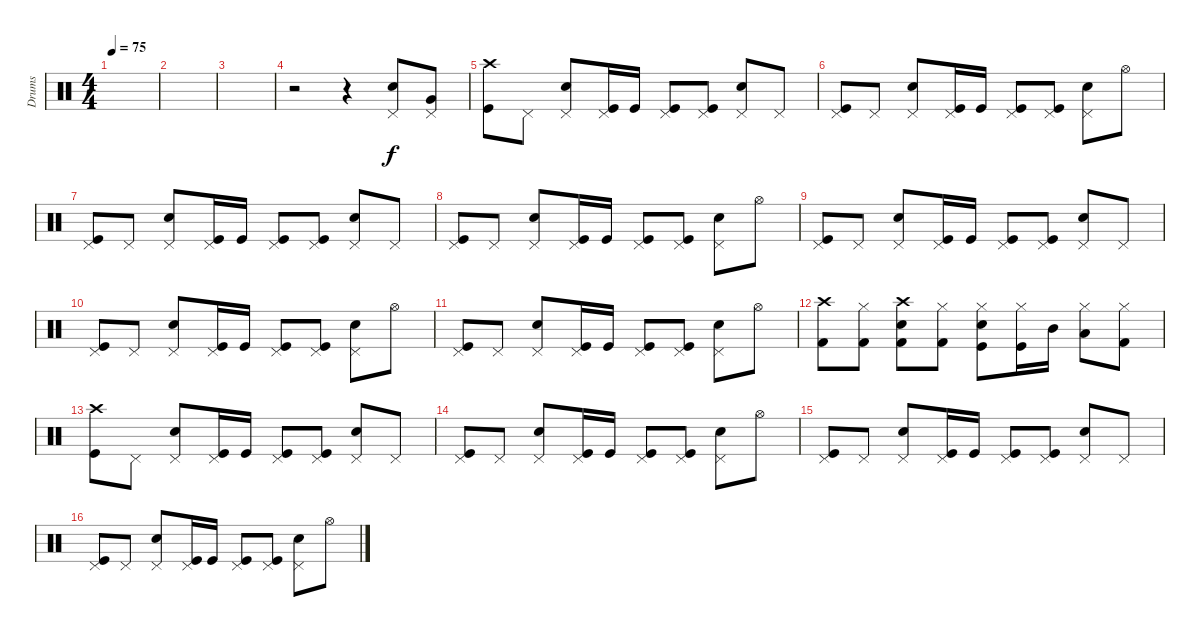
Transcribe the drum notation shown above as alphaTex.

\track ("Drums" "Drums") {instrument percussion}
\staff {score}
\articulation defaults
\ts (4 4)
\tempo 75
\clef neutral
\ks c
|
|
|
r.2 r.4 ("Pedal Hi-Hat (hit)" "Electric Snare (hit)").8 ("Pedal Hi-Hat (hit)" "Very Low Tom (hit)").8 |
("Crash high (hit)" "Kick (hit)").8 "Pedal Hi-Hat (hit)".8 ("Pedal Hi-Hat (hit)" "Electric Snare (hit)").8 ("Pedal Hi-Hat (hit)" "Kick (hit)").16 "Kick (hit)".16 ("Pedal Hi-Hat (hit)" "Kick (hit)").8 ("Pedal Hi-Hat (hit)" "Kick (hit)").8 ("Pedal Hi-Hat (hit)" "Electric Snare (hit)").8 "Pedal Hi-Hat (hit)".8 |
("Pedal Hi-Hat (hit)" "Kick (hit)").8 "Pedal Hi-Hat (hit)".8 ("Pedal Hi-Hat (hit)" "Electric Snare (hit)").8 ("Pedal Hi-Hat (hit)" "Kick (hit)").16 "Kick (hit)".16 ("Pedal Hi-Hat (hit)" "Kick (hit)").8 ("Pedal Hi-Hat (hit)" "Kick (hit)").8 ("Pedal Hi-Hat (hit)" "Electric Snare (hit)").8 "Hi-Hat (open)".8 |
("Pedal Hi-Hat (hit)" "Kick (hit)").8 "Pedal Hi-Hat (hit)".8 ("Pedal Hi-Hat (hit)" "Electric Snare (hit)").8 ("Pedal Hi-Hat (hit)" "Kick (hit)").16 "Kick (hit)".16 ("Pedal Hi-Hat (hit)" "Kick (hit)").8 ("Pedal Hi-Hat (hit)" "Kick (hit)").8 ("Pedal Hi-Hat (hit)" "Electric Snare (hit)").8 "Pedal Hi-Hat (hit)".8 |
("Pedal Hi-Hat (hit)" "Kick (hit)").8 "Pedal Hi-Hat (hit)".8 ("Pedal Hi-Hat (hit)" "Electric Snare (hit)").8 ("Pedal Hi-Hat (hit)" "Kick (hit)").16 "Kick (hit)".16 ("Pedal Hi-Hat (hit)" "Kick (hit)").8 ("Pedal Hi-Hat (hit)" "Kick (hit)").8 ("Pedal Hi-Hat (hit)" "Electric Snare (hit)").8 "Hi-Hat (open)".8 |
("Pedal Hi-Hat (hit)" "Kick (hit)").8 "Pedal Hi-Hat (hit)".8 ("Pedal Hi-Hat (hit)" "Electric Snare (hit)").8 ("Pedal Hi-Hat (hit)" "Kick (hit)").16 "Kick (hit)".16 ("Pedal Hi-Hat (hit)" "Kick (hit)").8 ("Pedal Hi-Hat (hit)" "Kick (hit)").8 ("Pedal Hi-Hat (hit)" "Electric Snare (hit)").8 "Pedal Hi-Hat (hit)".8 |
("Pedal Hi-Hat (hit)" "Kick (hit)").8 "Pedal Hi-Hat (hit)".8 ("Pedal Hi-Hat (hit)" "Electric Snare (hit)").8 ("Pedal Hi-Hat (hit)" "Kick (hit)").16 "Kick (hit)".16 ("Pedal Hi-Hat (hit)" "Kick (hit)").8 ("Pedal Hi-Hat (hit)" "Kick (hit)").8 ("Pedal Hi-Hat (hit)" "Electric Snare (hit)").8 "Hi-Hat (open)".8 |
("Pedal Hi-Hat (hit)" "Kick (hit)").8 "Pedal Hi-Hat (hit)".8 ("Pedal Hi-Hat (hit)" "Electric Snare (hit)").8 ("Pedal Hi-Hat (hit)" "Kick (hit)").16 "Kick (hit)".16 ("Pedal Hi-Hat (hit)" "Kick (hit)").8 ("Pedal Hi-Hat (hit)" "Kick (hit)").8 ("Pedal Hi-Hat (hit)" "Electric Snare (hit)").8 "Hi-Hat (open)".8 |
("Crash high (hit)" "Kick (hit) 2").8 ("Hi-Hat (closed)" "Kick (hit) 2").8 ("Crash high (hit)" "Electric Snare (hit)" "Kick (hit) 2").8 ("Hi-Hat (closed)" "Kick (hit) 2").8 ("Hi-Hat (closed)" "Electric Snare (hit)" "Kick (hit)").8 ("Hi-Hat (closed)" "Kick (hit)").16 "Mid Tom (hit)".16 ("Hi-Hat (closed)" "Low Tom (hit)").8 ("Hi-Hat (closed)" "Kick (hit) 2").8 |
("Crash high (hit)" "Kick (hit)").8 "Pedal Hi-Hat (hit)".8 ("Pedal Hi-Hat (hit)" "Electric Snare (hit)").8 ("Pedal Hi-Hat (hit)" "Kick (hit)").16 "Kick (hit)".16 ("Pedal Hi-Hat (hit)" "Kick (hit)").8 ("Pedal Hi-Hat (hit)" "Kick (hit)").8 ("Pedal Hi-Hat (hit)" "Electric Snare (hit)").8 "Pedal Hi-Hat (hit)".8 |
("Pedal Hi-Hat (hit)" "Kick (hit)").8 "Pedal Hi-Hat (hit)".8 ("Pedal Hi-Hat (hit)" "Electric Snare (hit)").8 ("Pedal Hi-Hat (hit)" "Kick (hit)").16 "Kick (hit)".16 ("Pedal Hi-Hat (hit)" "Kick (hit)").8 ("Pedal Hi-Hat (hit)" "Kick (hit)").8 ("Pedal Hi-Hat (hit)" "Electric Snare (hit)").8 "Hi-Hat (open)".8 |
("Pedal Hi-Hat (hit)" "Kick (hit)").8 "Pedal Hi-Hat (hit)".8 ("Pedal Hi-Hat (hit)" "Electric Snare (hit)").8 ("Pedal Hi-Hat (hit)" "Kick (hit)").16 "Kick (hit)".16 ("Pedal Hi-Hat (hit)" "Kick (hit)").8 ("Pedal Hi-Hat (hit)" "Kick (hit)").8 ("Pedal Hi-Hat (hit)" "Electric Snare (hit)").8 "Pedal Hi-Hat (hit)".8 |
("Pedal Hi-Hat (hit)" "Kick (hit)").8 "Pedal Hi-Hat (hit)".8 ("Pedal Hi-Hat (hit)" "Electric Snare (hit)").8 ("Pedal Hi-Hat (hit)" "Kick (hit)").16 "Kick (hit)".16 ("Pedal Hi-Hat (hit)" "Kick (hit)").8 ("Pedal Hi-Hat (hit)" "Kick (hit)").8 ("Pedal Hi-Hat (hit)" "Electric Snare (hit)").8 "Hi-Hat (open)".8
